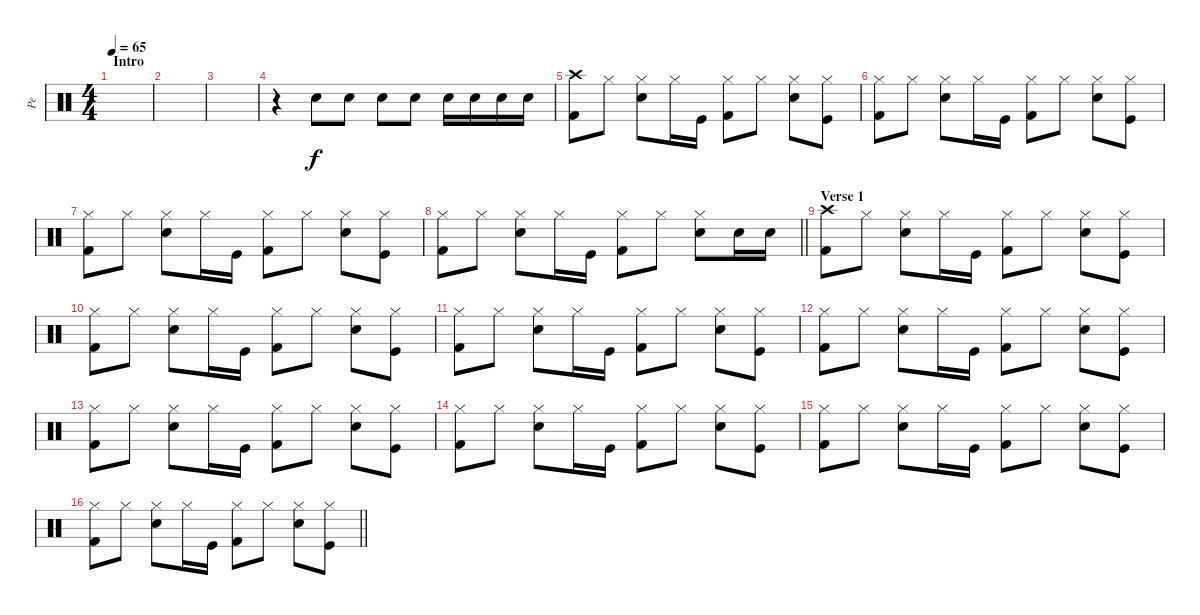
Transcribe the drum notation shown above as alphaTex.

\track ("Pe" "Pe") {instrument percussion}
\staff {score}
\articulation defaults
\ts (4 4)
\section ("" "Intro")
\tempo 65
\clef neutral
\ks c
|
|
|
r.4{volume 13} "Electric Snare (hit)".8 "Electric Snare (hit)".8 "Electric Snare (hit)".8 "Electric Snare (hit)".8 "Electric Snare (hit)".16 "Electric Snare (hit)".16 "Electric Snare (hit)".16 "Electric Snare (hit)".16 |
("Kick (hit) 2" "Crash high (hit)").8 "Hi-Hat (closed)".8 ("Electric Snare (hit)" "Hi-Hat (closed)").8 "Hi-Hat (closed)".16 "Kick (hit)".16 ("Kick (hit) 2" "Hi-Hat (closed)").8 "Hi-Hat (closed)".8 ("Electric Snare (hit)" "Hi-Hat (closed)").8 ("Kick (hit)" "Hi-Hat (closed)").8 |
("Kick (hit) 2" "Hi-Hat (closed)").8 "Hi-Hat (closed)".8 ("Electric Snare (hit)" "Hi-Hat (closed)").8 "Hi-Hat (closed)".16 "Kick (hit)".16 ("Kick (hit) 2" "Hi-Hat (closed)").8 "Hi-Hat (closed)".8 ("Electric Snare (hit)" "Hi-Hat (closed)").8 ("Kick (hit)" "Hi-Hat (closed)").8 |
("Kick (hit) 2" "Hi-Hat (closed)").8 "Hi-Hat (closed)".8 ("Electric Snare (hit)" "Hi-Hat (closed)").8 "Hi-Hat (closed)".16 "Kick (hit)".16 ("Kick (hit) 2" "Hi-Hat (closed)").8 "Hi-Hat (closed)".8 ("Electric Snare (hit)" "Hi-Hat (closed)").8 ("Kick (hit)" "Hi-Hat (closed)").8 |
\barLineRight lightlight
("Kick (hit) 2" "Hi-Hat (closed)").8 "Hi-Hat (closed)".8 ("Electric Snare (hit)" "Hi-Hat (closed)").8 "Hi-Hat (closed)".16 "Kick (hit)".16 ("Kick (hit) 2" "Hi-Hat (closed)").8 "Hi-Hat (closed)".8 ("Electric Snare (hit)" "Hi-Hat (closed)").8 "Electric Snare (hit)".16 "Electric Snare (hit)".16 |
\section ("" "Verse 1")
("Kick (hit) 2" "Crash high (hit)").8 "Hi-Hat (closed)".8 ("Electric Snare (hit)" "Hi-Hat (closed)").8 "Hi-Hat (closed)".16 "Kick (hit)".16 ("Kick (hit) 2" "Hi-Hat (closed)").8 "Hi-Hat (closed)".8 ("Electric Snare (hit)" "Hi-Hat (closed)").8 ("Kick (hit)" "Hi-Hat (closed)").8 |
("Kick (hit) 2" "Hi-Hat (closed)").8 "Hi-Hat (closed)".8 ("Electric Snare (hit)" "Hi-Hat (closed)").8 "Hi-Hat (closed)".16 "Kick (hit)".16 ("Kick (hit) 2" "Hi-Hat (closed)").8 "Hi-Hat (closed)".8 ("Electric Snare (hit)" "Hi-Hat (closed)").8 ("Kick (hit)" "Hi-Hat (closed)").8 |
("Kick (hit) 2" "Hi-Hat (closed)").8 "Hi-Hat (closed)".8 ("Electric Snare (hit)" "Hi-Hat (closed)").8 "Hi-Hat (closed)".16 "Kick (hit)".16 ("Kick (hit) 2" "Hi-Hat (closed)").8 "Hi-Hat (closed)".8 ("Electric Snare (hit)" "Hi-Hat (closed)").8 ("Kick (hit)" "Hi-Hat (closed)").8 |
("Kick (hit) 2" "Hi-Hat (closed)").8 "Hi-Hat (closed)".8 ("Electric Snare (hit)" "Hi-Hat (closed)").8 "Hi-Hat (closed)".16 "Kick (hit)".16 ("Kick (hit) 2" "Hi-Hat (closed)").8 "Hi-Hat (closed)".8 ("Electric Snare (hit)" "Hi-Hat (closed)").8 ("Kick (hit)" "Hi-Hat (closed)").8 |
("Kick (hit) 2" "Hi-Hat (closed)").8 "Hi-Hat (closed)".8 ("Electric Snare (hit)" "Hi-Hat (closed)").8 "Hi-Hat (closed)".16 "Kick (hit)".16 ("Kick (hit) 2" "Hi-Hat (closed)").8 "Hi-Hat (closed)".8 ("Electric Snare (hit)" "Hi-Hat (closed)").8 ("Kick (hit)" "Hi-Hat (closed)").8 |
("Kick (hit) 2" "Hi-Hat (closed)").8 "Hi-Hat (closed)".8 ("Electric Snare (hit)" "Hi-Hat (closed)").8 "Hi-Hat (closed)".16 "Kick (hit)".16 ("Kick (hit) 2" "Hi-Hat (closed)").8 "Hi-Hat (closed)".8 ("Electric Snare (hit)" "Hi-Hat (closed)").8 ("Kick (hit)" "Hi-Hat (closed)").8 |
("Kick (hit) 2" "Hi-Hat (closed)").8 "Hi-Hat (closed)".8 ("Electric Snare (hit)" "Hi-Hat (closed)").8 "Hi-Hat (closed)".16 "Kick (hit)".16 ("Kick (hit) 2" "Hi-Hat (closed)").8 "Hi-Hat (closed)".8 ("Electric Snare (hit)" "Hi-Hat (closed)").8 ("Kick (hit)" "Hi-Hat (closed)").8 |
\barLineRight lightlight
("Kick (hit) 2" "Hi-Hat (closed)").8 "Hi-Hat (closed)".8 ("Electric Snare (hit)" "Hi-Hat (closed)").8 "Hi-Hat (closed)".16 "Kick (hit)".16 ("Kick (hit) 2" "Hi-Hat (closed)").8 "Hi-Hat (closed)".8 ("Electric Snare (hit)" "Hi-Hat (closed)").8 ("Kick (hit)" "Hi-Hat (closed)").8
